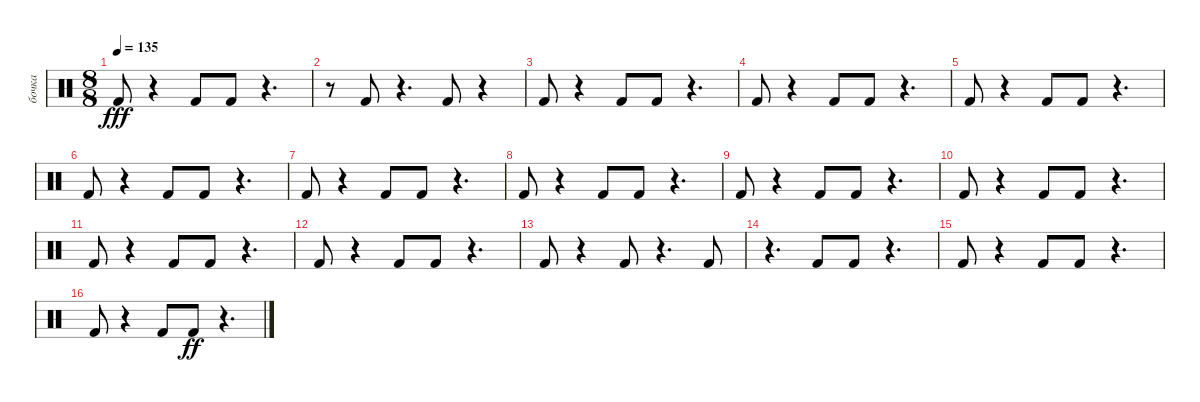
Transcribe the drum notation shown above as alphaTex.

\track ("бочка" "бочка") {instrument percussion}
\staff {score}
\articulation defaults
\ts (8 8)
\tempo 135
\clef neutral
\ks c "Kick (hit) 2".8{dy fff}
r.4 "Kick (hit) 2".8 "Kick (hit) 2".8 r.4{d} |
r.8 "Kick (hit) 2".8 r.4{d} "Kick (hit) 2".8 r.4 |
"Kick (hit) 2".8 r.4 "Kick (hit) 2".8 "Kick (hit) 2".8 r.4{d} |
"Kick (hit) 2".8 r.4 "Kick (hit) 2".8 "Kick (hit) 2".8 r.4{d} |
"Kick (hit) 2".8 r.4 "Kick (hit) 2".8 "Kick (hit) 2".8 r.4{d} |
"Kick (hit) 2".8 r.4 "Kick (hit) 2".8 "Kick (hit) 2".8 r.4{d} |
"Kick (hit) 2".8 r.4 "Kick (hit) 2".8 "Kick (hit) 2".8 r.4{d} |
"Kick (hit) 2".8 r.4 "Kick (hit) 2".8 "Kick (hit) 2".8 r.4{d} |
"Kick (hit) 2".8 r.4 "Kick (hit) 2".8 "Kick (hit) 2".8 r.4{d} |
"Kick (hit) 2".8 r.4 "Kick (hit) 2".8 "Kick (hit) 2".8 r.4{d} |
"Kick (hit) 2".8 r.4 "Kick (hit) 2".8 "Kick (hit) 2".8 r.4{d} |
"Kick (hit) 2".8 r.4 "Kick (hit) 2".8 "Kick (hit) 2".8 r.4{d} |
"Kick (hit) 2".8 r.4 "Kick (hit) 2".8 r.4{d} "Kick (hit) 2".8 |
r.4{d} "Kick (hit) 2".8 "Kick (hit) 2".8 r.4{d} |
"Kick (hit) 2".8 r.4 "Kick (hit) 2".8 "Kick (hit) 2".8 r.4{d} |
"Kick (hit) 2".8 r.4 "Kick (hit) 2".8 "Kick (hit) 2".8{dy ff} r.4{d}
